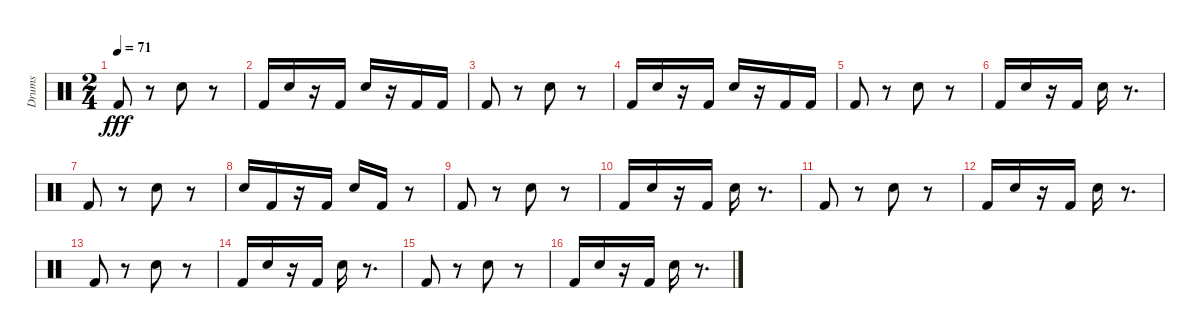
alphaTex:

\track ("Drums" "Drums") {instrument percussion}
\staff {score}
\articulation defaults
\ts (2 4)
\tempo 71
\clef neutral
\ks c "Kick (hit) 2".8{dy fff}
r.8 "Snare (hit) 2".8 r.8 |
"Kick (hit) 2".16 "Snare (hit) 2".16 r.16 "Kick (hit) 2".16 "Snare (hit) 2".16 r.16 "Kick (hit) 2".16 "Kick (hit) 2".16 |
"Kick (hit) 2".8 r.8 "Snare (hit) 2".8 r.8 |
"Kick (hit) 2".16 "Snare (hit) 2".16 r.16 "Kick (hit) 2".16 "Snare (hit) 2".16 r.16 "Kick (hit) 2".16 "Kick (hit) 2".16 |
"Kick (hit) 2".8 r.8 "Snare (hit) 2".8 r.8 |
"Kick (hit) 2".16 "Snare (hit) 2".16 r.16 "Kick (hit) 2".16 "Snare (hit) 2".16 r.8{d} |
"Kick (hit) 2".8 r.8 "Snare (hit) 2".8 r.8 |
"Electric Snare (hit)".16 "Kick (hit) 2".16 r.16 "Kick (hit) 2".16 "Snare (hit) 2".16 "Kick (hit) 2".16 r.8 |
"Kick (hit) 2".8 r.8 "Snare (hit) 2".8 r.8 |
"Kick (hit) 2".16 "Snare (hit) 2".16 r.16 "Kick (hit) 2".16 "Snare (hit) 2".16 r.8{d} |
"Kick (hit) 2".8 r.8 "Snare (hit) 2".8 r.8 |
"Kick (hit) 2".16 "Snare (hit) 2".16 r.16 "Kick (hit) 2".16 "Snare (hit) 2".16 r.8{d} |
"Kick (hit) 2".8 r.8 "Snare (hit) 2".8 r.8 |
"Kick (hit) 2".16 "Snare (hit) 2".16 r.16 "Kick (hit) 2".16 "Snare (hit) 2".16 r.8{d} |
"Kick (hit) 2".8 r.8 "Snare (hit) 2".8 r.8 |
"Kick (hit) 2".16 "Snare (hit) 2".16 r.16 "Kick (hit) 2".16 "Snare (hit) 2".16 r.8{d}
